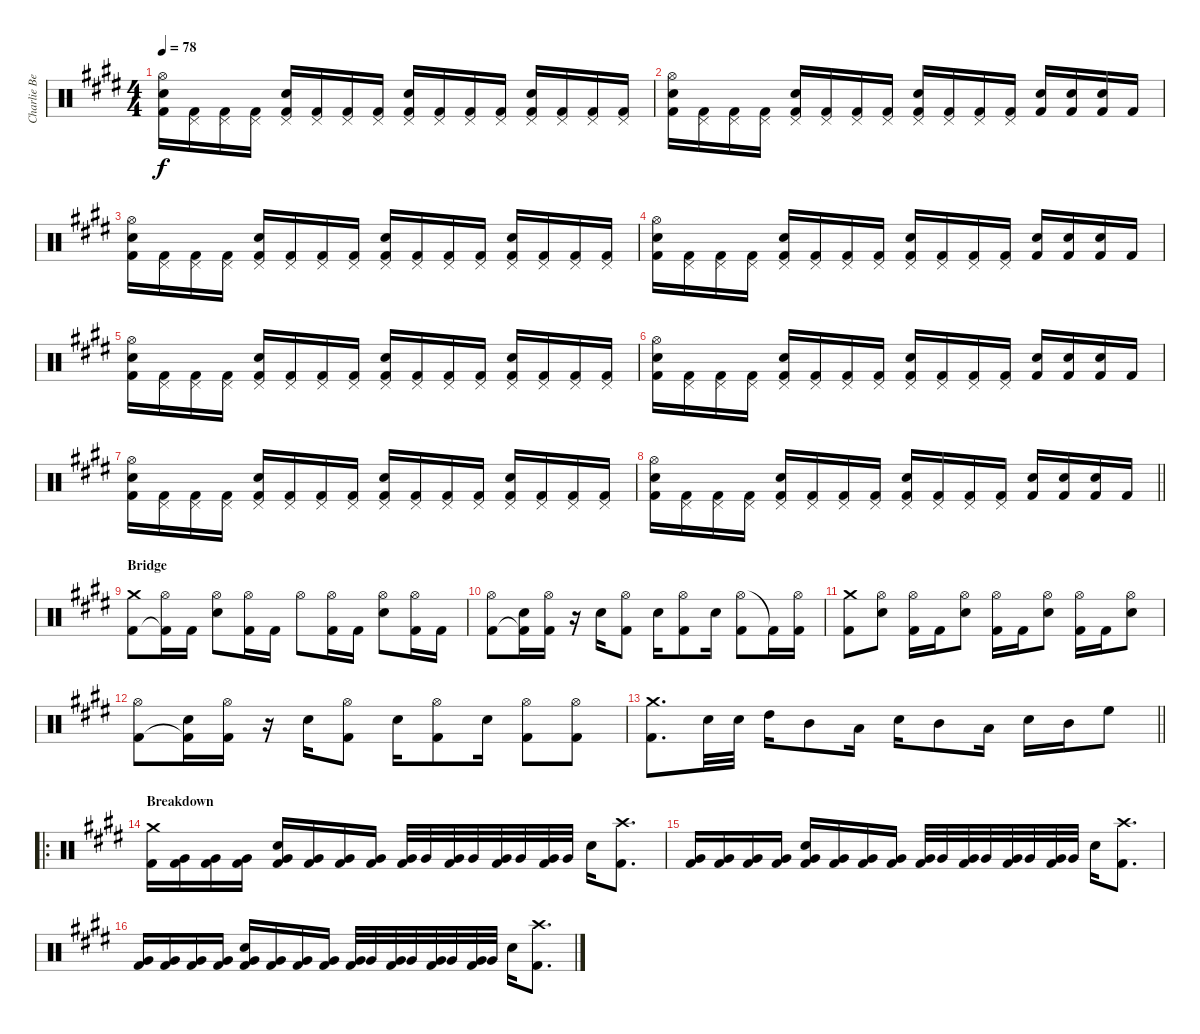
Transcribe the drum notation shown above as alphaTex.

\track ("Charlie Benate " "Charlie Be") {instrument percussion}
\staff {score}
\articulation defaults
\ts (4 4)
\tempo 78
\clef neutral
\ks e
("Hi-Hat (open)" "Snare (hit) 2" "Kick (hit) 2").16{dy f} ("Pedal Hi-Hat (hit)" "Kick (hit) 2").16 ("Pedal Hi-Hat (hit)" "Kick (hit) 2").16 ("Pedal Hi-Hat (hit)" "Kick (hit) 2").16 ("Pedal Hi-Hat (hit)" "Snare (hit) 2" "Kick (hit) 2").16 ("Pedal Hi-Hat (hit)" "Kick (hit) 2").16 ("Pedal Hi-Hat (hit)" "Kick (hit) 2").16 ("Pedal Hi-Hat (hit)" "Kick (hit) 2").16 ("Pedal Hi-Hat (hit)" "Snare (hit) 2" "Kick (hit) 2").16 ("Pedal Hi-Hat (hit)" "Kick (hit) 2").16 ("Pedal Hi-Hat (hit)" "Kick (hit) 2").16 ("Pedal Hi-Hat (hit)" "Kick (hit) 2").16 ("Pedal Hi-Hat (hit)" "Snare (hit) 2" "Kick (hit) 2").16 ("Pedal Hi-Hat (hit)" "Kick (hit) 2").16 ("Pedal Hi-Hat (hit)" "Kick (hit) 2").16 ("Pedal Hi-Hat (hit)" "Kick (hit) 2").16 |
("Hi-Hat (open)" "Snare (hit) 2" "Kick (hit) 2").16 ("Pedal Hi-Hat (hit)" "Kick (hit) 2").16 ("Pedal Hi-Hat (hit)" "Kick (hit) 2").16 ("Pedal Hi-Hat (hit)" "Kick (hit) 2").16 ("Pedal Hi-Hat (hit)" "Snare (hit) 2" "Kick (hit) 2").16 ("Pedal Hi-Hat (hit)" "Kick (hit) 2").16 ("Pedal Hi-Hat (hit)" "Kick (hit) 2").16 ("Pedal Hi-Hat (hit)" "Kick (hit) 2").16 ("Pedal Hi-Hat (hit)" "Snare (hit) 2" "Kick (hit) 2").16 ("Pedal Hi-Hat (hit)" "Kick (hit) 2").16 ("Pedal Hi-Hat (hit)" "Kick (hit) 2").16 ("Pedal Hi-Hat (hit)" "Kick (hit) 2").16 ("Snare (hit) 2" "Kick (hit) 2").16 ("Snare (hit) 2" "Kick (hit) 2").16 ("Snare (hit) 2" "Kick (hit) 2").16 "Kick (hit) 2".16 |
("Hi-Hat (open)" "Snare (hit) 2" "Kick (hit) 2").16 ("Pedal Hi-Hat (hit)" "Kick (hit) 2").16 ("Pedal Hi-Hat (hit)" "Kick (hit) 2").16 ("Pedal Hi-Hat (hit)" "Kick (hit) 2").16 ("Pedal Hi-Hat (hit)" "Snare (hit) 2" "Kick (hit) 2").16 ("Pedal Hi-Hat (hit)" "Kick (hit) 2").16 ("Pedal Hi-Hat (hit)" "Kick (hit) 2").16 ("Pedal Hi-Hat (hit)" "Kick (hit) 2").16 ("Pedal Hi-Hat (hit)" "Snare (hit) 2" "Kick (hit) 2").16 ("Pedal Hi-Hat (hit)" "Kick (hit) 2").16 ("Pedal Hi-Hat (hit)" "Kick (hit) 2").16 ("Pedal Hi-Hat (hit)" "Kick (hit) 2").16 ("Pedal Hi-Hat (hit)" "Snare (hit) 2" "Kick (hit) 2").16 ("Pedal Hi-Hat (hit)" "Kick (hit) 2").16 ("Pedal Hi-Hat (hit)" "Kick (hit) 2").16 ("Pedal Hi-Hat (hit)" "Kick (hit) 2").16 |
("Hi-Hat (open)" "Snare (hit) 2" "Kick (hit) 2").16 ("Pedal Hi-Hat (hit)" "Kick (hit) 2").16 ("Pedal Hi-Hat (hit)" "Kick (hit) 2").16 ("Pedal Hi-Hat (hit)" "Kick (hit) 2").16 ("Pedal Hi-Hat (hit)" "Snare (hit) 2" "Kick (hit) 2").16 ("Pedal Hi-Hat (hit)" "Kick (hit) 2").16 ("Pedal Hi-Hat (hit)" "Kick (hit) 2").16 ("Pedal Hi-Hat (hit)" "Kick (hit) 2").16 ("Pedal Hi-Hat (hit)" "Snare (hit) 2" "Kick (hit) 2").16 ("Pedal Hi-Hat (hit)" "Kick (hit) 2").16 ("Pedal Hi-Hat (hit)" "Kick (hit) 2").16 ("Pedal Hi-Hat (hit)" "Kick (hit) 2").16 ("Snare (hit) 2" "Kick (hit) 2").16 ("Snare (hit) 2" "Kick (hit) 2").16 ("Snare (hit) 2" "Kick (hit) 2").16 "Kick (hit) 2".16 |
("Hi-Hat (open)" "Snare (hit) 2" "Kick (hit) 2").16 ("Pedal Hi-Hat (hit)" "Kick (hit) 2").16 ("Pedal Hi-Hat (hit)" "Kick (hit) 2").16 ("Pedal Hi-Hat (hit)" "Kick (hit) 2").16 ("Pedal Hi-Hat (hit)" "Snare (hit) 2" "Kick (hit) 2").16 ("Pedal Hi-Hat (hit)" "Kick (hit) 2").16 ("Pedal Hi-Hat (hit)" "Kick (hit) 2").16 ("Pedal Hi-Hat (hit)" "Kick (hit) 2").16 ("Pedal Hi-Hat (hit)" "Snare (hit) 2" "Kick (hit) 2").16 ("Pedal Hi-Hat (hit)" "Kick (hit) 2").16 ("Pedal Hi-Hat (hit)" "Kick (hit) 2").16 ("Pedal Hi-Hat (hit)" "Kick (hit) 2").16 ("Pedal Hi-Hat (hit)" "Snare (hit) 2" "Kick (hit) 2").16 ("Pedal Hi-Hat (hit)" "Kick (hit) 2").16 ("Pedal Hi-Hat (hit)" "Kick (hit) 2").16 ("Pedal Hi-Hat (hit)" "Kick (hit) 2").16 |
("Hi-Hat (open)" "Snare (hit) 2" "Kick (hit) 2").16 ("Pedal Hi-Hat (hit)" "Kick (hit) 2").16 ("Pedal Hi-Hat (hit)" "Kick (hit) 2").16 ("Pedal Hi-Hat (hit)" "Kick (hit) 2").16 ("Pedal Hi-Hat (hit)" "Snare (hit) 2" "Kick (hit) 2").16 ("Pedal Hi-Hat (hit)" "Kick (hit) 2").16 ("Pedal Hi-Hat (hit)" "Kick (hit) 2").16 ("Pedal Hi-Hat (hit)" "Kick (hit) 2").16 ("Pedal Hi-Hat (hit)" "Snare (hit) 2" "Kick (hit) 2").16 ("Pedal Hi-Hat (hit)" "Kick (hit) 2").16 ("Pedal Hi-Hat (hit)" "Kick (hit) 2").16 ("Pedal Hi-Hat (hit)" "Kick (hit) 2").16 ("Snare (hit) 2" "Kick (hit) 2").16 ("Snare (hit) 2" "Kick (hit) 2").16 ("Snare (hit) 2" "Kick (hit) 2").16 "Kick (hit) 2".16 |
("Hi-Hat (open)" "Snare (hit) 2" "Kick (hit) 2").16 ("Pedal Hi-Hat (hit)" "Kick (hit) 2").16 ("Pedal Hi-Hat (hit)" "Kick (hit) 2").16 ("Pedal Hi-Hat (hit)" "Kick (hit) 2").16 ("Pedal Hi-Hat (hit)" "Snare (hit) 2" "Kick (hit) 2").16 ("Pedal Hi-Hat (hit)" "Kick (hit) 2").16 ("Pedal Hi-Hat (hit)" "Kick (hit) 2").16 ("Pedal Hi-Hat (hit)" "Kick (hit) 2").16 ("Pedal Hi-Hat (hit)" "Snare (hit) 2" "Kick (hit) 2").16 ("Pedal Hi-Hat (hit)" "Kick (hit) 2").16 ("Pedal Hi-Hat (hit)" "Kick (hit) 2").16 ("Pedal Hi-Hat (hit)" "Kick (hit) 2").16 ("Pedal Hi-Hat (hit)" "Snare (hit) 2" "Kick (hit) 2").16 ("Pedal Hi-Hat (hit)" "Kick (hit) 2").16 ("Pedal Hi-Hat (hit)" "Kick (hit) 2").16 ("Pedal Hi-Hat (hit)" "Kick (hit) 2").16 |
\barLineRight lightlight
("Hi-Hat (open)" "Snare (hit) 2" "Kick (hit) 2").16 ("Pedal Hi-Hat (hit)" "Kick (hit) 2").16 ("Pedal Hi-Hat (hit)" "Kick (hit) 2").16 ("Pedal Hi-Hat (hit)" "Kick (hit) 2").16 ("Pedal Hi-Hat (hit)" "Snare (hit) 2" "Kick (hit) 2").16 ("Pedal Hi-Hat (hit)" "Kick (hit) 2").16 ("Pedal Hi-Hat (hit)" "Kick (hit) 2").16 ("Pedal Hi-Hat (hit)" "Kick (hit) 2").16 ("Pedal Hi-Hat (hit)" "Snare (hit) 2" "Kick (hit) 2").16 ("Pedal Hi-Hat (hit)" "Kick (hit) 2").16 ("Pedal Hi-Hat (hit)" "Kick (hit) 2").16 ("Pedal Hi-Hat (hit)" "Kick (hit) 2").16 ("Snare (hit) 2" "Kick (hit) 2").16 ("Snare (hit) 2" "Kick (hit) 2").16 ("Snare (hit) 2" "Kick (hit) 2").16 "Kick (hit) 2".16 |
\section ("" "Bridge")
("Crash medium (hit)" "Kick (hit) 2").8 ("Hi-Hat (open)" "Kick (hit) 2"{t}).16 "Kick (hit) 2".16 ("Hi-Hat (open)" "Snare (hit) 2").8 ("Hi-Hat (open)" "Kick (hit) 2").16 "Kick (hit) 2".16 "Hi-Hat (open)".8 ("Hi-Hat (open)" "Kick (hit) 2").16 "Kick (hit) 2".16 ("Hi-Hat (open)" "Snare (hit) 2").8 ("Hi-Hat (open)" "Kick (hit) 2").16 "Kick (hit) 2".16 |
("Hi-Hat (open)" "Kick (hit) 2").8 ("Snare (hit) 2" "Kick (hit) 2"{t}).16 ("Hi-Hat (open)" "Kick (hit) 2").16 r.16 "Snare (hit) 2".16 ("Hi-Hat (open)" "Kick (hit) 2").8 "Snare (hit) 2".16 ("Hi-Hat (open)" "Kick (hit) 2").8 "Snare (hit) 2".16 ("Hi-Hat (open)" "Kick (hit) 2").8 "Kick (hit) 2"{t}.16 ("Hi-Hat (open)" "Kick (hit) 2").16 |
("Crash medium (hit)" "Kick (hit) 2").8 ("Hi-Hat (open)" "Snare (hit) 2").8 ("Hi-Hat (open)" "Kick (hit) 2").16 "Kick (hit) 2".16 ("Hi-Hat (open)" "Snare (hit) 2").8 ("Hi-Hat (open)" "Kick (hit) 2").16 "Kick (hit) 2".16 ("Hi-Hat (open)" "Snare (hit) 2").8 ("Hi-Hat (open)" "Kick (hit) 2").16 "Kick (hit) 2".16 ("Hi-Hat (open)" "Snare (hit) 2").8 |
("Hi-Hat (open)" "Kick (hit) 2").8 ("Snare (hit) 2" "Kick (hit) 2"{t}).16 ("Hi-Hat (open)" "Kick (hit) 2").16 r.16 "Snare (hit) 2".16 ("Hi-Hat (open)" "Kick (hit) 2").8 "Snare (hit) 2".16 ("Hi-Hat (open)" "Kick (hit) 2").8 "Snare (hit) 2".16 ("Hi-Hat (open)" "Kick (hit) 2").8 ("Hi-Hat (open)" "Kick (hit) 2").8 |
\barLineRight lightlight
("Crash medium (hit)" "Kick (hit) 2").8{d} "Snare (hit) 2".32 "Snare (hit) 2".32 "High Tom (hit)".16 "Mid Tom (hit)".8 "Low Tom (hit)".16 "Snare (hit) 2".16 "Mid Tom (hit)".8 "Low Tom (hit)".16 "Snare (hit) 2".16 "Mid Tom (hit)".16 "High Floor Tom (hit)".8 |
\ro
\section ("" "Breakdown")
("Crash medium (hit)" "Kick (hit) 2").16 ("Very Low Tom (hit)" "Kick (hit) 2").16 ("Very Low Tom (hit)" "Kick (hit) 2").16 ("Very Low Tom (hit)" "Kick (hit) 2").16 ("Snare (hit) 2" "Very Low Tom (hit)" "Kick (hit) 2").16 ("Very Low Tom (hit)" "Kick (hit) 2").16 ("Very Low Tom (hit)" "Kick (hit) 2").16 ("Very Low Tom (hit)" "Kick (hit) 2").16 ("Very Low Tom (hit)" "Kick (hit) 2").32 "Very Low Tom (hit)".32 ("Very Low Tom (hit)" "Kick (hit) 2").32 "Very Low Tom (hit)".32 ("Very Low Tom (hit)" "Kick (hit) 2").32 "Very Low Tom (hit)".32 ("Very Low Tom (hit)" "Kick (hit) 2").32 "Very Low Tom (hit)".32 "Snare (hit) 2".16 ("Crash high (hit)" "Kick (hit) 2").8{d} |
("Very Low Tom (hit)" "Kick (hit) 2").16 ("Very Low Tom (hit)" "Kick (hit) 2").16 ("Very Low Tom (hit)" "Kick (hit) 2").16 ("Very Low Tom (hit)" "Kick (hit) 2").16 ("Snare (hit) 2" "Very Low Tom (hit)" "Kick (hit) 2").16 ("Very Low Tom (hit)" "Kick (hit) 2").16 ("Very Low Tom (hit)" "Kick (hit) 2").16 ("Very Low Tom (hit)" "Kick (hit) 2").16 ("Very Low Tom (hit)" "Kick (hit) 2").32 "Very Low Tom (hit)".32 ("Very Low Tom (hit)" "Kick (hit) 2").32 "Very Low Tom (hit)".32 ("Very Low Tom (hit)" "Kick (hit) 2").32 "Very Low Tom (hit)".32 ("Very Low Tom (hit)" "Kick (hit) 2").32 "Very Low Tom (hit)".32 "Snare (hit) 2".16 ("Crash high (hit)" "Kick (hit) 2").8{d} |
("Very Low Tom (hit)" "Kick (hit) 2").16 ("Very Low Tom (hit)" "Kick (hit) 2").16 ("Very Low Tom (hit)" "Kick (hit) 2").16 ("Very Low Tom (hit)" "Kick (hit) 2").16 ("Snare (hit) 2" "Very Low Tom (hit)" "Kick (hit) 2").16 ("Very Low Tom (hit)" "Kick (hit) 2").16 ("Very Low Tom (hit)" "Kick (hit) 2").16 ("Very Low Tom (hit)" "Kick (hit) 2").16 ("Very Low Tom (hit)" "Kick (hit) 2").32 "Very Low Tom (hit)".32 ("Very Low Tom (hit)" "Kick (hit) 2").32 "Very Low Tom (hit)".32 ("Very Low Tom (hit)" "Kick (hit) 2").32 "Very Low Tom (hit)".32 ("Very Low Tom (hit)" "Kick (hit) 2").32 "Very Low Tom (hit)".32 "Snare (hit) 2".16 ("Crash high (hit)" "Kick (hit) 2").8{d}
